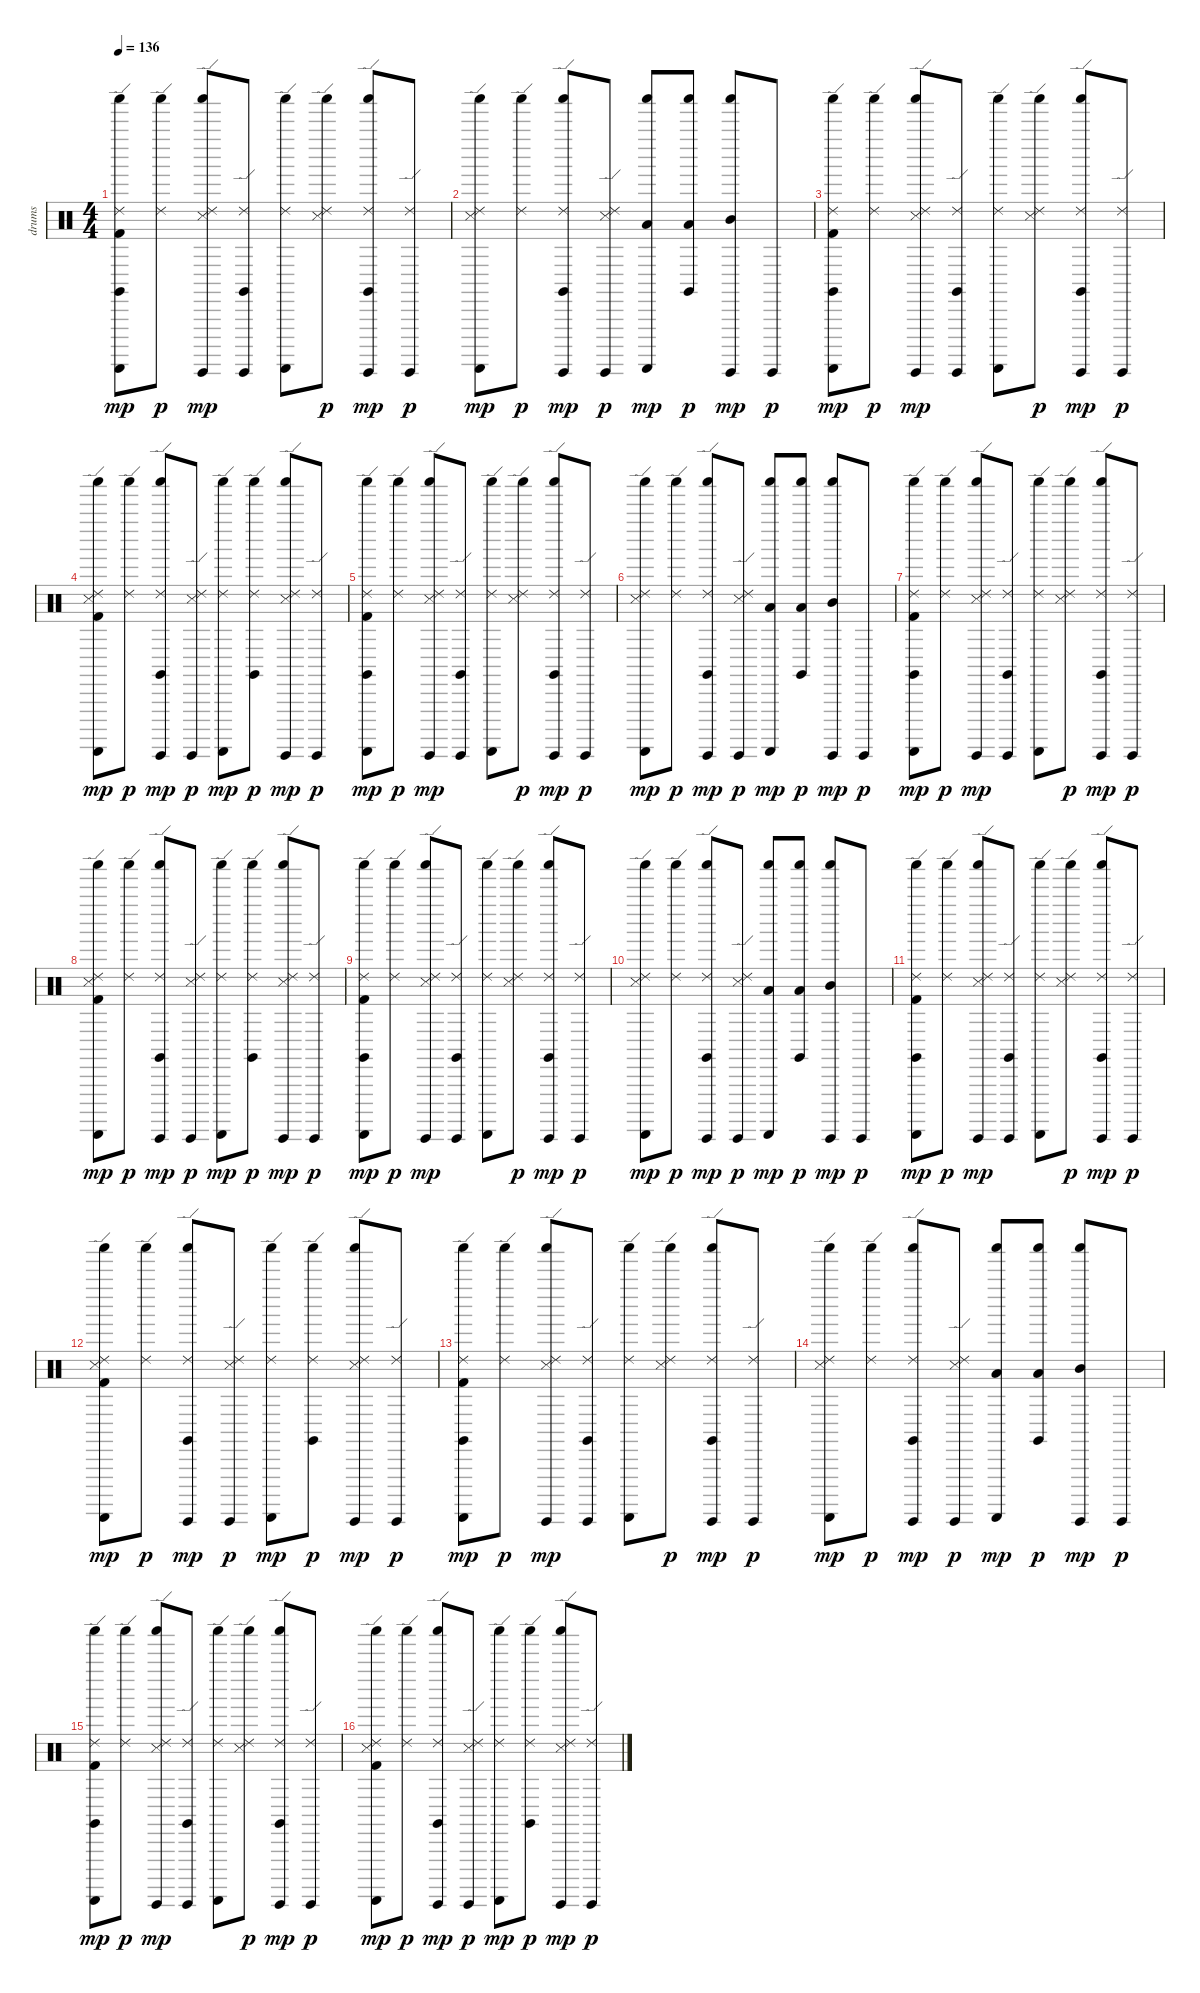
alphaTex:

\track ("drums" "drums") {instrument percussion}
\staff {score}
\articulation defaults
\ts (4 4)
\tempo 136
\clef neutral
\ks c
("Kick (hit) 2" "Ride (edge) 2" "Guiro (scrap-return)" "Claves (hit)" "Shaker (hit)").8{dy mp} ("Ride (edge) 2" "Shaker (hit)").8{dy p} ("Snare (side stick) 3" "Ride (edge) 2" "Guiro (hit)" "Shaker (hit)").8{dy mp} ("Ride (edge) 2" "Guiro (hit)" "Claves (hit)").8 ("Ride (edge) 2" "Guiro (scrap-return)" "Shaker (hit)").8 ("Snare (side stick) 3" "Ride (edge) 2" "Shaker (hit)").8{dy p} ("Ride (edge) 2" "Guiro (hit)" "Claves (hit)" "Shaker (hit)").8{dy mp} ("Ride (edge) 2" "Guiro (hit)").8{dy p} |
("Snare (side stick) 3" "Ride (edge) 2" "Guiro (scrap-return)" "Shaker (hit)").8{dy mp} ("Ride (edge) 2" "Shaker (hit)").8{dy p} ("Ride (edge) 2" "Guiro (hit)" "Claves (hit)" "Shaker (hit)").8{dy mp} ("Snare (side stick) 3" "Ride (edge) 2" "Guiro (hit)").8{dy p} ("Low Tom (hit)" "Guiro (scrap-return)" "Shaker (hit)").8{dy mp} ("Low Tom (hit)" "Claves (hit)" "Shaker (hit)").8{dy p} ("Mid Tom (hit)" "Guiro (hit)" "Shaker (hit)").8{dy mp} "Guiro (hit)".8{dy p} |
("Kick (hit) 2" "Ride (edge) 2" "Guiro (scrap-return)" "Claves (hit)" "Shaker (hit)").8{dy mp} ("Ride (edge) 2" "Shaker (hit)").8{dy p} ("Snare (side stick) 3" "Ride (edge) 2" "Guiro (hit)" "Shaker (hit)").8{dy mp} ("Ride (edge) 2" "Guiro (hit)" "Claves (hit)").8 ("Ride (edge) 2" "Guiro (scrap-return)" "Shaker (hit)").8 ("Snare (side stick) 3" "Ride (edge) 2" "Shaker (hit)").8{dy p} ("Ride (edge) 2" "Guiro (hit)" "Claves (hit)" "Shaker (hit)").8{dy mp} ("Ride (edge) 2" "Guiro (hit)").8{dy p} |
("Kick (hit) 2" "Snare (side stick) 3" "Ride (edge) 2" "Guiro (scrap-return)" "Shaker (hit)").8{dy mp} ("Ride (edge) 2" "Shaker (hit)").8{dy p} ("Ride (edge) 2" "Guiro (hit)" "Claves (hit)" "Shaker (hit)").8{dy mp} ("Snare (side stick) 3" "Ride (edge) 2" "Guiro (hit)").8{dy p} ("Ride (edge) 2" "Guiro (scrap-return)" "Shaker (hit)").8{dy mp} ("Ride (edge) 2" "Claves (hit)" "Shaker (hit)").8{dy p} ("Snare (side stick) 3" "Ride (edge) 2" "Guiro (hit)" "Shaker (hit)").8{dy mp} ("Ride (edge) 2" "Guiro (hit)").8{dy p} |
("Kick (hit) 2" "Ride (edge) 2" "Guiro (scrap-return)" "Claves (hit)" "Shaker (hit)").8{dy mp} ("Ride (edge) 2" "Shaker (hit)").8{dy p} ("Snare (side stick) 3" "Ride (edge) 2" "Guiro (hit)" "Shaker (hit)").8{dy mp} ("Ride (edge) 2" "Guiro (hit)" "Claves (hit)").8 ("Ride (edge) 2" "Guiro (scrap-return)" "Shaker (hit)").8 ("Snare (side stick) 3" "Ride (edge) 2" "Shaker (hit)").8{dy p} ("Ride (edge) 2" "Guiro (hit)" "Claves (hit)" "Shaker (hit)").8{dy mp} ("Ride (edge) 2" "Guiro (hit)").8{dy p} |
("Snare (side stick) 3" "Ride (edge) 2" "Guiro (scrap-return)" "Shaker (hit)").8{dy mp} ("Ride (edge) 2" "Shaker (hit)").8{dy p} ("Ride (edge) 2" "Guiro (hit)" "Claves (hit)" "Shaker (hit)").8{dy mp} ("Snare (side stick) 3" "Ride (edge) 2" "Guiro (hit)").8{dy p} ("Low Tom (hit)" "Guiro (scrap-return)" "Shaker (hit)").8{dy mp} ("Low Tom (hit)" "Claves (hit)" "Shaker (hit)").8{dy p} ("Mid Tom (hit)" "Guiro (hit)" "Shaker (hit)").8{dy mp} "Guiro (hit)".8{dy p} |
("Kick (hit) 2" "Ride (edge) 2" "Guiro (scrap-return)" "Claves (hit)" "Shaker (hit)").8{dy mp} ("Ride (edge) 2" "Shaker (hit)").8{dy p} ("Snare (side stick) 3" "Ride (edge) 2" "Guiro (hit)" "Shaker (hit)").8{dy mp} ("Ride (edge) 2" "Guiro (hit)" "Claves (hit)").8 ("Ride (edge) 2" "Guiro (scrap-return)" "Shaker (hit)").8 ("Snare (side stick) 3" "Ride (edge) 2" "Shaker (hit)").8{dy p} ("Ride (edge) 2" "Guiro (hit)" "Claves (hit)" "Shaker (hit)").8{dy mp} ("Ride (edge) 2" "Guiro (hit)").8{dy p} |
("Kick (hit) 2" "Snare (side stick) 3" "Ride (edge) 2" "Guiro (scrap-return)" "Shaker (hit)").8{dy mp} ("Ride (edge) 2" "Shaker (hit)").8{dy p} ("Ride (edge) 2" "Guiro (hit)" "Claves (hit)" "Shaker (hit)").8{dy mp} ("Snare (side stick) 3" "Ride (edge) 2" "Guiro (hit)").8{dy p} ("Ride (edge) 2" "Guiro (scrap-return)" "Shaker (hit)").8{dy mp} ("Ride (edge) 2" "Claves (hit)" "Shaker (hit)").8{dy p} ("Snare (side stick) 3" "Ride (edge) 2" "Guiro (hit)" "Shaker (hit)").8{dy mp} ("Ride (edge) 2" "Guiro (hit)").8{dy p} |
("Kick (hit) 2" "Ride (edge) 2" "Guiro (scrap-return)" "Claves (hit)" "Shaker (hit)").8{dy mp} ("Ride (edge) 2" "Shaker (hit)").8{dy p} ("Snare (side stick) 3" "Ride (edge) 2" "Guiro (hit)" "Shaker (hit)").8{dy mp} ("Ride (edge) 2" "Guiro (hit)" "Claves (hit)").8 ("Ride (edge) 2" "Guiro (scrap-return)" "Shaker (hit)").8 ("Snare (side stick) 3" "Ride (edge) 2" "Shaker (hit)").8{dy p} ("Ride (edge) 2" "Guiro (hit)" "Claves (hit)" "Shaker (hit)").8{dy mp} ("Ride (edge) 2" "Guiro (hit)").8{dy p} |
("Snare (side stick) 3" "Ride (edge) 2" "Guiro (scrap-return)" "Shaker (hit)").8{dy mp} ("Ride (edge) 2" "Shaker (hit)").8{dy p} ("Ride (edge) 2" "Guiro (hit)" "Claves (hit)" "Shaker (hit)").8{dy mp} ("Snare (side stick) 3" "Ride (edge) 2" "Guiro (hit)").8{dy p} ("Low Tom (hit)" "Guiro (scrap-return)" "Shaker (hit)").8{dy mp} ("Low Tom (hit)" "Claves (hit)" "Shaker (hit)").8{dy p} ("Mid Tom (hit)" "Guiro (hit)" "Shaker (hit)").8{dy mp} "Guiro (hit)".8{dy p} |
("Kick (hit) 2" "Ride (edge) 2" "Guiro (scrap-return)" "Claves (hit)" "Shaker (hit)").8{dy mp} ("Ride (edge) 2" "Shaker (hit)").8{dy p} ("Snare (side stick) 3" "Ride (edge) 2" "Guiro (hit)" "Shaker (hit)").8{dy mp} ("Ride (edge) 2" "Guiro (hit)" "Claves (hit)").8 ("Ride (edge) 2" "Guiro (scrap-return)" "Shaker (hit)").8 ("Snare (side stick) 3" "Ride (edge) 2" "Shaker (hit)").8{dy p} ("Ride (edge) 2" "Guiro (hit)" "Claves (hit)" "Shaker (hit)").8{dy mp} ("Ride (edge) 2" "Guiro (hit)").8{dy p} |
("Kick (hit) 2" "Snare (side stick) 3" "Ride (edge) 2" "Guiro (scrap-return)" "Shaker (hit)").8{dy mp} ("Ride (edge) 2" "Shaker (hit)").8{dy p} ("Ride (edge) 2" "Guiro (hit)" "Claves (hit)" "Shaker (hit)").8{dy mp} ("Snare (side stick) 3" "Ride (edge) 2" "Guiro (hit)").8{dy p} ("Ride (edge) 2" "Guiro (scrap-return)" "Shaker (hit)").8{dy mp} ("Ride (edge) 2" "Claves (hit)" "Shaker (hit)").8{dy p} ("Snare (side stick) 3" "Ride (edge) 2" "Guiro (hit)" "Shaker (hit)").8{dy mp} ("Ride (edge) 2" "Guiro (hit)").8{dy p} |
("Kick (hit) 2" "Ride (edge) 2" "Guiro (scrap-return)" "Claves (hit)" "Shaker (hit)").8{dy mp} ("Ride (edge) 2" "Shaker (hit)").8{dy p} ("Snare (side stick) 3" "Ride (edge) 2" "Guiro (hit)" "Shaker (hit)").8{dy mp} ("Ride (edge) 2" "Guiro (hit)" "Claves (hit)").8 ("Ride (edge) 2" "Guiro (scrap-return)" "Shaker (hit)").8 ("Snare (side stick) 3" "Ride (edge) 2" "Shaker (hit)").8{dy p} ("Ride (edge) 2" "Guiro (hit)" "Claves (hit)" "Shaker (hit)").8{dy mp} ("Ride (edge) 2" "Guiro (hit)").8{dy p} |
("Snare (side stick) 3" "Ride (edge) 2" "Guiro (scrap-return)" "Shaker (hit)").8{dy mp} ("Ride (edge) 2" "Shaker (hit)").8{dy p} ("Ride (edge) 2" "Guiro (hit)" "Claves (hit)" "Shaker (hit)").8{dy mp} ("Snare (side stick) 3" "Ride (edge) 2" "Guiro (hit)").8{dy p} ("Low Tom (hit)" "Guiro (scrap-return)" "Shaker (hit)").8{dy mp} ("Low Tom (hit)" "Claves (hit)" "Shaker (hit)").8{dy p} ("Mid Tom (hit)" "Guiro (hit)" "Shaker (hit)").8{dy mp} "Guiro (hit)".8{dy p} |
("Kick (hit) 2" "Ride (edge) 2" "Guiro (scrap-return)" "Claves (hit)" "Shaker (hit)").8{dy mp} ("Ride (edge) 2" "Shaker (hit)").8{dy p} ("Snare (side stick) 3" "Ride (edge) 2" "Guiro (hit)" "Shaker (hit)").8{dy mp} ("Ride (edge) 2" "Guiro (hit)" "Claves (hit)").8 ("Ride (edge) 2" "Guiro (scrap-return)" "Shaker (hit)").8 ("Snare (side stick) 3" "Ride (edge) 2" "Shaker (hit)").8{dy p} ("Ride (edge) 2" "Guiro (hit)" "Claves (hit)" "Shaker (hit)").8{dy mp} ("Ride (edge) 2" "Guiro (hit)").8{dy p} |
("Kick (hit) 2" "Snare (side stick) 3" "Ride (edge) 2" "Guiro (scrap-return)" "Shaker (hit)").8{dy mp} ("Ride (edge) 2" "Shaker (hit)").8{dy p} ("Ride (edge) 2" "Guiro (hit)" "Claves (hit)" "Shaker (hit)").8{dy mp} ("Snare (side stick) 3" "Ride (edge) 2" "Guiro (hit)").8{dy p} ("Ride (edge) 2" "Guiro (scrap-return)" "Shaker (hit)").8{dy mp} ("Ride (edge) 2" "Claves (hit)" "Shaker (hit)").8{dy p} ("Snare (side stick) 3" "Ride (edge) 2" "Guiro (hit)" "Shaker (hit)").8{dy mp} ("Ride (edge) 2" "Guiro (hit)").8{dy p}
